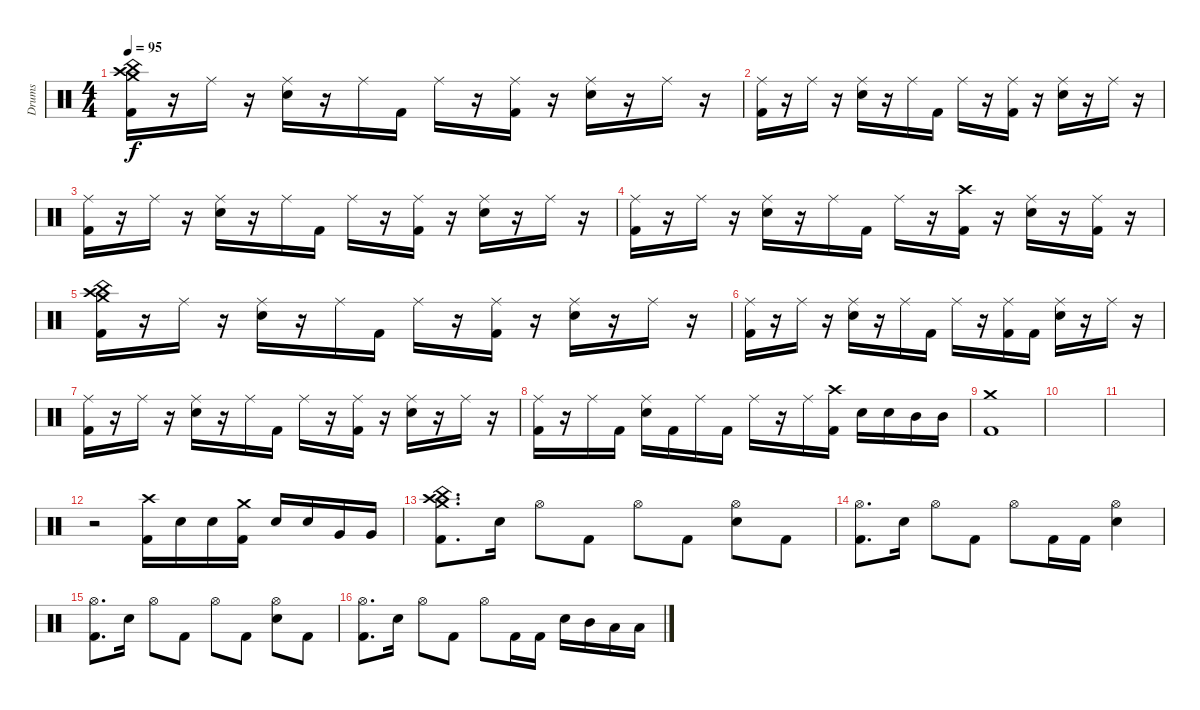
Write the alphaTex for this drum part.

\track ("Drums" "Drums") {instrument percussion}
\staff {score}
\articulation defaults
\ts (4 4)
\tempo 95
\clef neutral
\ks c
("Crash high (hit)" "Crash medium (hit)" "China (hit)" "Kick (hit) 2").16{dy f} r.16 "Ride (middle)".16 r.16 ("Ride (middle)" "Electric Snare (hit)").16 r.16 "Ride (middle)".16 "Kick (hit) 2".16 "Ride (middle)".16 r.16 ("Ride (middle)" "Kick (hit) 2").16 r.16 ("Ride (middle)" "Electric Snare (hit)").16 r.16 "Ride (middle)".16 r.16 |
("Ride (middle)" "Kick (hit) 2").16 r.16 "Ride (middle)".16 r.16 ("Ride (middle)" "Electric Snare (hit)").16 r.16 "Ride (middle)".16 "Kick (hit) 2".16 "Ride (middle)".16 r.16 ("Ride (middle)" "Kick (hit) 2").16 r.16 ("Ride (middle)" "Electric Snare (hit)").16 r.16 "Ride (middle)".16 r.16 |
("Ride (middle)" "Kick (hit) 2").16 r.16 "Ride (middle)".16 r.16 ("Ride (middle)" "Electric Snare (hit)").16 r.16 "Ride (middle)".16 "Kick (hit) 2".16 "Ride (middle)".16 r.16 ("Ride (middle)" "Kick (hit) 2").16 r.16 ("Ride (middle)" "Electric Snare (hit)").16 r.16 "Ride (middle)".16 r.16 |
("Ride (middle)" "Kick (hit) 2").16 r.16 "Ride (middle)".16 r.16 ("Ride (middle)" "Electric Snare (hit)").16 r.16 "Ride (middle)".16 "Kick (hit) 2".16 "Ride (middle)".16 r.16 ("Crash high (hit)" "Kick (hit) 2").16 r.16 ("Ride (middle)" "Electric Snare (hit)").16 r.16 ("Ride (middle)" "Kick (hit) 2").16 r.16 |
("Crash high (hit)" "Crash medium (hit)" "China (hit)" "Kick (hit) 2").16 r.16 "Ride (middle)".16 r.16 ("Ride (middle)" "Electric Snare (hit)").16 r.16 "Ride (middle)".16 "Kick (hit) 2".16 "Ride (middle)".16 r.16 ("Ride (middle)" "Kick (hit) 2").16 r.16 ("Ride (middle)" "Electric Snare (hit)").16 r.16 "Ride (middle)".16 r.16 |
("Ride (middle)" "Kick (hit) 2").16 r.16 "Ride (middle)".16 r.16 ("Ride (middle)" "Electric Snare (hit)").16 r.16 "Ride (middle)".16 "Kick (hit) 2".16 "Ride (middle)".16 r.16 ("Ride (middle)" "Kick (hit) 2").16 "Kick (hit) 2".16 ("Ride (middle)" "Electric Snare (hit)").16 r.16 "Ride (middle)".16 r.16 |
("Ride (middle)" "Kick (hit) 2").16 r.16 "Ride (middle)".16 r.16 ("Ride (middle)" "Electric Snare (hit)").16 r.16 "Ride (middle)".16 "Kick (hit) 2".16 "Ride (middle)".16 r.16 ("Ride (middle)" "Kick (hit) 2").16 r.16 ("Ride (middle)" "Electric Snare (hit)").16 r.16 "Ride (middle)".16 r.16 |
("Ride (middle)" "Kick (hit) 2").16 r.16 "Ride (middle)".16 "Kick (hit) 2".16 ("Ride (middle)" "Electric Snare (hit)").16 "Kick (hit) 2".16 "Ride (middle)".16 "Kick (hit) 2".16 "Ride (middle)".16 r.16 "Ride (middle)".16 ("Crash high (hit)" "Kick (hit) 2").16 "Electric Snare (hit)".16 "Electric Snare (hit)".16 "Mid Tom (hit)".16 "Mid Tom (hit)".16 |
("Crash medium (hit)" "Kick (hit) 2").1 |
|
|
r.2 ("Crash high (hit)" "Kick (hit) 2").16 "Electric Snare (hit)".16 "Electric Snare (hit)".16 ("Crash medium (hit)" "Kick (hit) 2").16 "Electric Snare (hit)".16 "Electric Snare (hit)".16 "Very Low Tom (hit)".16 "Very Low Tom (hit)".16 |
("Crash high (hit)" "Crash medium (hit)" "China (hit)" "Kick (hit) 2").8{d} "Electric Snare (hit)".16 "Hi-Hat (open)".8 "Kick (hit) 2".8 "Hi-Hat (open)".8 "Kick (hit) 2".8 ("Hi-Hat (open)" "Electric Snare (hit)").8 "Kick (hit) 2".8 |
("Hi-Hat (open)" "Kick (hit) 2").8{d} "Electric Snare (hit)".16 "Hi-Hat (open)".8 "Kick (hit) 2".8 "Hi-Hat (open)".8 "Kick (hit) 2".16 "Kick (hit) 2".16 ("Hi-Hat (open)" "Electric Snare (hit)").4 |
("Hi-Hat (open)" "Kick (hit) 2").8{d} "Electric Snare (hit)".16 "Hi-Hat (open)".8 "Kick (hit) 2".8 "Hi-Hat (open)".8 "Kick (hit) 2".8 ("Hi-Hat (open)" "Electric Snare (hit)").8 "Kick (hit) 2".8 |
("Hi-Hat (open)" "Kick (hit) 2").8{d} "Electric Snare (hit)".16 "Hi-Hat (open)".8 "Kick (hit) 2".8 "Hi-Hat (open)".8 "Kick (hit) 2".16 "Kick (hit) 2".16 "Electric Snare (hit)".16 "Mid Tom (hit)".16 "Low Tom (hit)".16 "Low Tom (hit)".16
